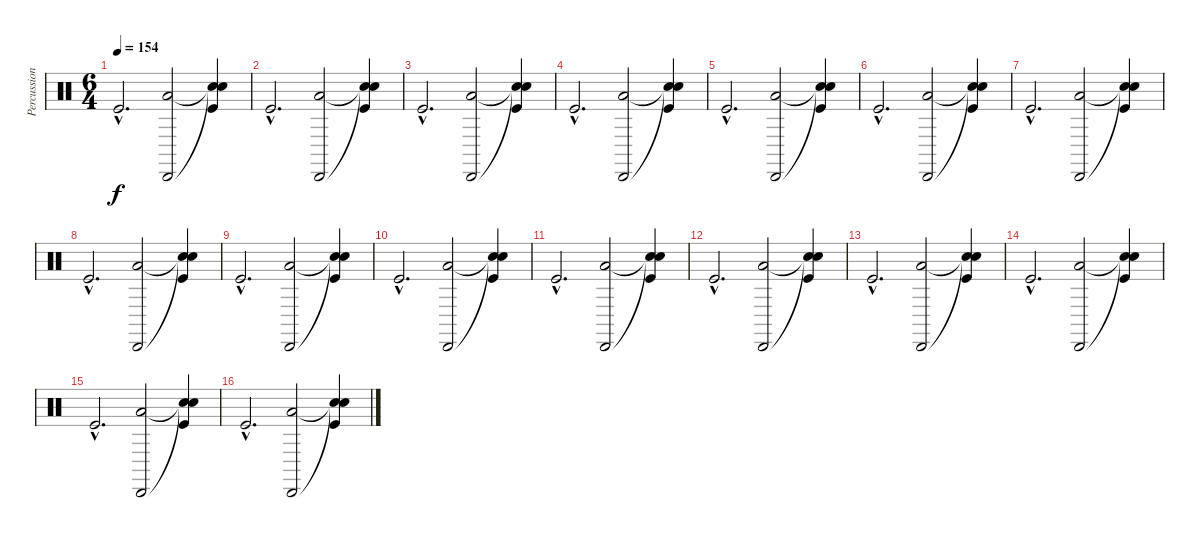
\track ("Percussions" "Percussion") {instrument percussion}
\staff {score}
\articulation defaults
\ts (6 4)
\tempo 154
\clef neutral
\ks c "Kick (hit)"{hac}.2{d dy f}
("Cabasa (hit)" "Low Tom (hit)").2 ("Snare (hit)"{t} "Snare (hit)"{t} "Kick (hit)").4 |
"Kick (hit)"{hac}.2{d} ("Cabasa (hit)" "Low Tom (hit)").2 ("Snare (hit)"{t} "Snare (hit)"{t} "Kick (hit)").4 |
"Kick (hit)"{hac}.2{d} ("Cabasa (hit)" "Low Tom (hit)").2 ("Snare (hit)"{t} "Snare (hit)"{t} "Kick (hit)").4 |
"Kick (hit)"{hac}.2{d} ("Cabasa (hit)" "Low Tom (hit)").2 ("Snare (hit)"{t} "Snare (hit)"{t} "Kick (hit)").4 |
"Kick (hit)"{hac}.2{d} ("Cabasa (hit)" "Low Tom (hit)").2 ("Snare (hit)"{t} "Snare (hit)"{t} "Kick (hit)").4 |
"Kick (hit)"{hac}.2{d} ("Cabasa (hit)" "Low Tom (hit)").2 ("Snare (hit)"{t} "Snare (hit)"{t} "Kick (hit)").4 |
"Kick (hit)"{hac}.2{d} ("Cabasa (hit)" "Low Tom (hit)").2 ("Snare (hit)"{t} "Snare (hit)"{t} "Kick (hit)").4 |
"Kick (hit)"{hac}.2{d} ("Cabasa (hit)" "Low Tom (hit)").2 ("Snare (hit)"{t} "Snare (hit)"{t} "Kick (hit)").4 |
"Kick (hit)"{hac}.2{d} ("Cabasa (hit)" "Low Tom (hit)").2 ("Snare (hit)"{t} "Snare (hit)"{t} "Kick (hit)").4 |
"Kick (hit)"{hac}.2{d} ("Cabasa (hit)" "Low Tom (hit)").2 ("Snare (hit)"{t} "Snare (hit)"{t} "Kick (hit)").4 |
"Kick (hit)"{hac}.2{d} ("Cabasa (hit)" "Low Tom (hit)").2 ("Snare (hit)"{t} "Snare (hit)"{t} "Kick (hit)").4 |
"Kick (hit)"{hac}.2{d} ("Cabasa (hit)" "Low Tom (hit)").2 ("Snare (hit)"{t} "Snare (hit)"{t} "Kick (hit)").4 |
"Kick (hit)"{hac}.2{d} ("Cabasa (hit)" "Low Tom (hit)").2 ("Snare (hit)"{t} "Snare (hit)"{t} "Kick (hit)").4 |
"Kick (hit)"{hac}.2{d} ("Cabasa (hit)" "Low Tom (hit)").2 ("Snare (hit)"{t} "Snare (hit)"{t} "Kick (hit)").4 |
"Kick (hit)"{hac}.2{d} ("Cabasa (hit)" "Low Tom (hit)").2 ("Snare (hit)"{t} "Snare (hit)"{t} "Kick (hit)").4 |
"Kick (hit)"{hac}.2{d} ("Cabasa (hit)" "Low Tom (hit)").2 ("Snare (hit)"{t} "Snare (hit)"{t} "Kick (hit)").4
